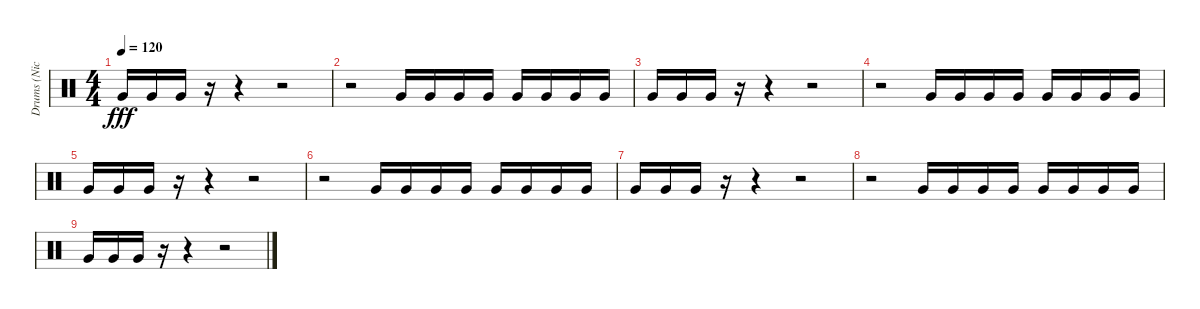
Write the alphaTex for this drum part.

\track ("Drums (Nick Menza)" "Drums (Nic") {instrument percussion}
\staff {score}
\articulation defaults
\ts (4 4)
\tempo 120
\clef neutral
\ks c "Very Low Tom (hit)".16{dy fff} "Very Low Tom (hit)".16 "Very Low Tom (hit)".16
r.16 r.4 r.2 |
r.2 "Very Low Tom (hit)".16 "Very Low Tom (hit)".16 "Very Low Tom (hit)".16 "Very Low Tom (hit)".16 "Very Low Tom (hit)".16 "Very Low Tom (hit)".16 "Very Low Tom (hit)".16 "Very Low Tom (hit)".16 |
"Very Low Tom (hit)".16 "Very Low Tom (hit)".16 "Very Low Tom (hit)".16 r.16 r.4 r.2 |
r.2 "Very Low Tom (hit)".16 "Very Low Tom (hit)".16 "Very Low Tom (hit)".16 "Very Low Tom (hit)".16 "Very Low Tom (hit)".16 "Very Low Tom (hit)".16 "Very Low Tom (hit)".16 "Very Low Tom (hit)".16 |
"Very Low Tom (hit)".16 "Very Low Tom (hit)".16 "Very Low Tom (hit)".16 r.16 r.4 r.2 |
r.2 "Very Low Tom (hit)".16 "Very Low Tom (hit)".16 "Very Low Tom (hit)".16 "Very Low Tom (hit)".16 "Very Low Tom (hit)".16 "Very Low Tom (hit)".16 "Very Low Tom (hit)".16 "Very Low Tom (hit)".16 |
"Very Low Tom (hit)".16 "Very Low Tom (hit)".16 "Very Low Tom (hit)".16 r.16 r.4 r.2 |
r.2 "Very Low Tom (hit)".16 "Very Low Tom (hit)".16 "Very Low Tom (hit)".16 "Very Low Tom (hit)".16 "Very Low Tom (hit)".16 "Very Low Tom (hit)".16 "Very Low Tom (hit)".16 "Very Low Tom (hit)".16 |
"Very Low Tom (hit)".16 "Very Low Tom (hit)".16 "Very Low Tom (hit)".16 r.16 r.4 r.2
